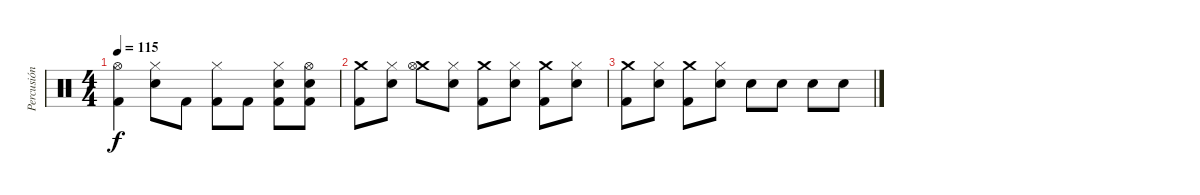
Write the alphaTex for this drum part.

\track ("Percusión" "Percusión") {instrument percussion}
\staff {score}
\articulation defaults
\ts (4 4)
\tempo 115
\clef neutral
\ks c
("Hi-Hat (open)" "Kick (hit) 2").4{dy f} ("Hi-Hat (closed)" "Electric Snare (hit)").8 "Kick (hit) 2".8 ("Hi-Hat (closed)" "Kick (hit) 2").8 "Kick (hit) 2".8 ("Hi-Hat (closed)" "Snare (hit) 2" "Kick (hit) 2").8 ("Hi-Hat (open)" "Electric Snare (hit)" "Kick (hit) 2").8 |
("Crash medium (hit)" "Kick (hit) 2").8 ("Hi-Hat (closed)" "Electric Snare (hit)").8 ("Crash medium (hit)" "Hi-Hat (open)").8 ("Hi-Hat (closed)" "Electric Snare (hit)").8 ("Crash medium (hit)" "Kick (hit) 2").8 ("Hi-Hat (closed)" "Electric Snare (hit)").8 ("Crash medium (hit)" "Kick (hit) 2").8 ("Hi-Hat (closed)" "Electric Snare (hit)").8 |
("Crash medium (hit)" "Kick (hit) 2").8 ("Hi-Hat (closed)" "Electric Snare (hit)").8 ("Crash medium (hit)" "Kick (hit) 2").8 ("Hi-Hat (closed)" "Electric Snare (hit)").8 "Electric Snare (hit)".8 "Electric Snare (hit)".8 "Electric Snare (hit)".8 "Electric Snare (hit)".8
